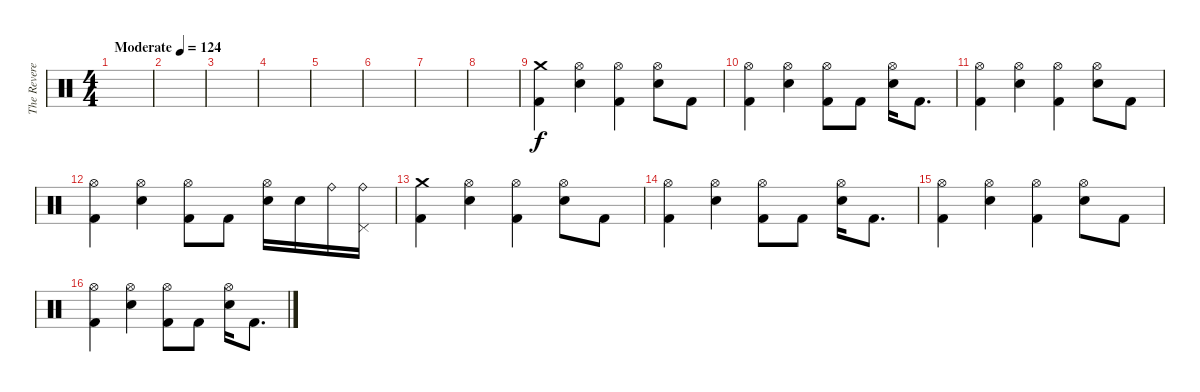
\track ("The Reverend" "The Revere") {instrument percussion}
\staff {score}
\articulation defaults
\ts (4 4)
\tempo (124 "Moderate")
\clef neutral
\ks c
|
|
|
|
|
|
|
|
("Crash medium (hit)" "Kick (hit) 2").4 ("Hi-Hat (open)" "Electric Snare (hit)").4 ("Hi-Hat (open)" "Kick (hit) 2").4 ("Hi-Hat (open)" "Electric Snare (hit)").8 "Kick (hit) 2".8 |
("Hi-Hat (open)" "Kick (hit) 2").4 ("Hi-Hat (open)" "Electric Snare (hit)").4 ("Hi-Hat (open)" "Kick (hit) 2").8 "Kick (hit) 2".8 ("Hi-Hat (open)" "Electric Snare (hit)").16 "Kick (hit) 2".8{d} |
("Hi-Hat (open)" "Kick (hit) 2").4 ("Hi-Hat (open)" "Electric Snare (hit)").4 ("Hi-Hat (open)" "Kick (hit) 2").4 ("Hi-Hat (open)" "Electric Snare (hit)").8 "Kick (hit) 2".8 |
("Hi-Hat (open)" "Kick (hit) 2").4 ("Hi-Hat (open)" "Electric Snare (hit)").4 ("Hi-Hat (open)" "Kick (hit) 2").8 "Kick (hit) 2".8 ("Hi-Hat (open)" "Electric Snare (hit)").16 "Electric Snare (hit)".16 "Ride (bell)".16 ("Ride (bell)" "Pedal Hi-Hat (hit)").16 |
("Crash medium (hit)" "Kick (hit) 2").4 ("Hi-Hat (open)" "Electric Snare (hit)").4 ("Hi-Hat (open)" "Kick (hit) 2").4 ("Hi-Hat (open)" "Electric Snare (hit)").8 "Kick (hit) 2".8 |
("Hi-Hat (open)" "Kick (hit) 2").4 ("Hi-Hat (open)" "Electric Snare (hit)").4 ("Hi-Hat (open)" "Kick (hit) 2").8 "Kick (hit) 2".8 ("Hi-Hat (open)" "Electric Snare (hit)").16 "Kick (hit) 2".8{d} |
("Hi-Hat (open)" "Kick (hit) 2").4 ("Hi-Hat (open)" "Electric Snare (hit)").4 ("Hi-Hat (open)" "Kick (hit) 2").4 ("Hi-Hat (open)" "Electric Snare (hit)").8 "Kick (hit) 2".8 |
("Hi-Hat (open)" "Kick (hit) 2").4 ("Hi-Hat (open)" "Electric Snare (hit)").4 ("Hi-Hat (open)" "Kick (hit) 2").8 "Kick (hit) 2".8 ("Hi-Hat (open)" "Electric Snare (hit)").16 "Kick (hit) 2".8{d}
